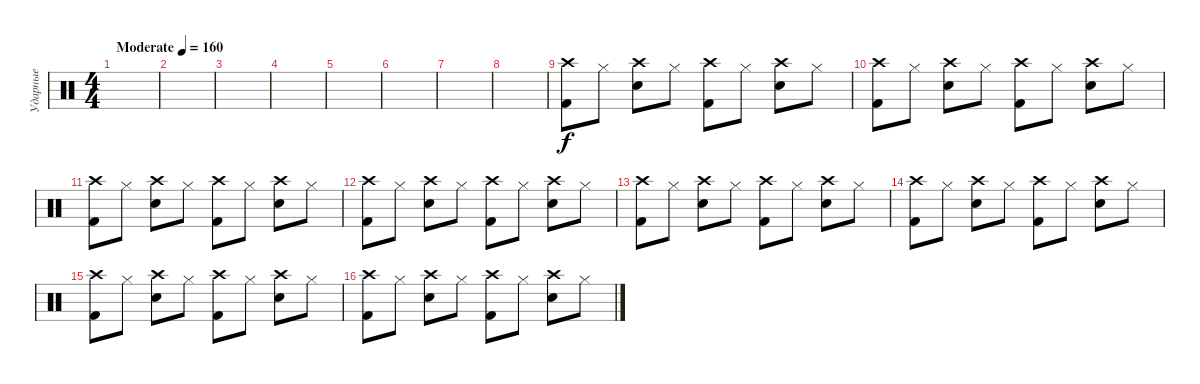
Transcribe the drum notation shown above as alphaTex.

\track ("Ударные" "Ударные") {instrument percussion}
\staff {score}
\articulation defaults
\ts (4 4)
\tempo (160 "Moderate")
\clef neutral
\ks c
|
|
|
|
|
|
|
|
("Crash high (hit)" "Kick (hit) 2").8 "Hi-Hat (closed)".8 ("Crash high (hit)" "Snare (hit) 2").8 "Hi-Hat (closed)".8 ("Crash high (hit)" "Kick (hit) 2").8 "Hi-Hat (closed)".8 ("Crash high (hit)" "Snare (hit) 2").8 "Hi-Hat (closed)".8 |
("Crash high (hit)" "Kick (hit) 2").8 "Hi-Hat (closed)".8 ("Crash high (hit)" "Snare (hit) 2").8 "Hi-Hat (closed)".8 ("Crash high (hit)" "Kick (hit) 2").8 "Hi-Hat (closed)".8 ("Crash high (hit)" "Snare (hit) 2").8 "Hi-Hat (closed)".8 |
("Crash high (hit)" "Kick (hit) 2").8 "Hi-Hat (closed)".8 ("Crash high (hit)" "Snare (hit) 2").8 "Hi-Hat (closed)".8 ("Crash high (hit)" "Kick (hit) 2").8 "Hi-Hat (closed)".8 ("Crash high (hit)" "Snare (hit) 2").8 "Hi-Hat (closed)".8 |
("Crash high (hit)" "Kick (hit) 2").8 "Hi-Hat (closed)".8 ("Crash high (hit)" "Snare (hit) 2").8 "Hi-Hat (closed)".8 ("Crash high (hit)" "Kick (hit) 2").8 "Hi-Hat (closed)".8 ("Crash high (hit)" "Snare (hit) 2").8 "Hi-Hat (closed)".8 |
("Crash high (hit)" "Kick (hit) 2").8 "Hi-Hat (closed)".8 ("Crash high (hit)" "Snare (hit) 2").8 "Hi-Hat (closed)".8 ("Crash high (hit)" "Kick (hit) 2").8 "Hi-Hat (closed)".8 ("Crash high (hit)" "Snare (hit) 2").8 "Hi-Hat (closed)".8 |
("Crash high (hit)" "Kick (hit) 2").8 "Hi-Hat (closed)".8 ("Crash high (hit)" "Snare (hit) 2").8 "Hi-Hat (closed)".8 ("Crash high (hit)" "Kick (hit) 2").8 "Hi-Hat (closed)".8 ("Crash high (hit)" "Snare (hit) 2").8 "Hi-Hat (closed)".8 |
("Crash high (hit)" "Kick (hit) 2").8 "Hi-Hat (closed)".8 ("Crash high (hit)" "Snare (hit) 2").8 "Hi-Hat (closed)".8 ("Crash high (hit)" "Kick (hit) 2").8 "Hi-Hat (closed)".8 ("Crash high (hit)" "Snare (hit) 2").8 "Hi-Hat (closed)".8 |
("Crash high (hit)" "Kick (hit) 2").8 "Hi-Hat (closed)".8 ("Crash high (hit)" "Snare (hit) 2").8 "Hi-Hat (closed)".8 ("Crash high (hit)" "Kick (hit) 2").8 "Hi-Hat (closed)".8 ("Crash high (hit)" "Snare (hit) 2").8 "Hi-Hat (closed)".8
